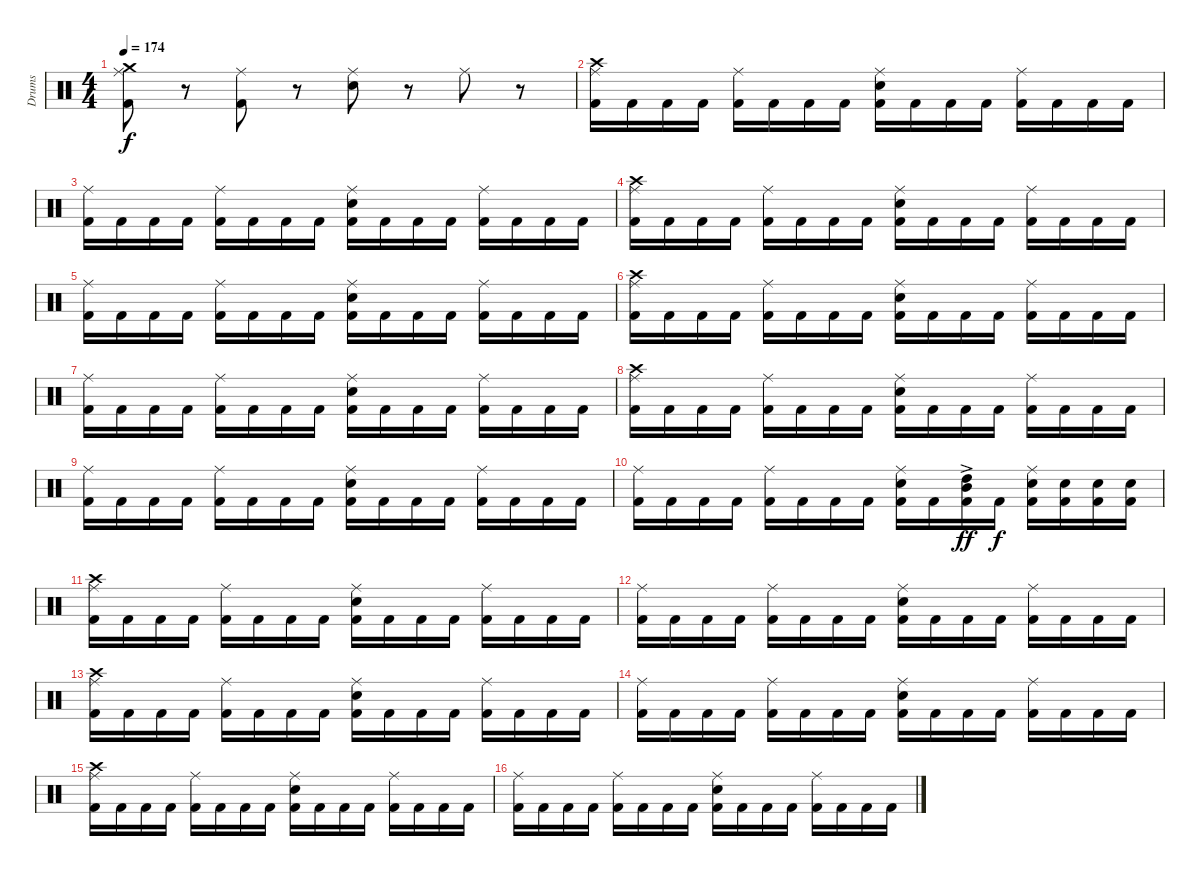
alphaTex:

\track ("Drums" "Drums") {instrument percussion}
\staff {score}
\articulation defaults
\ts (4 4)
\tempo 174
\clef neutral
\ks c
("Ride (middle)" "Crash medium (hit)" "Kick (hit) 2").8{dy f} r.8 ("Ride (middle)" "Kick (hit) 2").8 r.8 ("Ride (middle)" "Snare (hit) 2").8 r.8 "Ride (middle)".8 r.8 |
("Crash high (hit)" "Ride (middle)" "Kick (hit) 2").16 "Kick (hit) 2".16 "Kick (hit) 2".16 "Kick (hit) 2".16 ("Ride (middle)" "Kick (hit) 2").16 "Kick (hit) 2".16 "Kick (hit) 2".16 "Kick (hit) 2".16 ("Ride (middle)" "Snare (hit) 2" "Kick (hit) 2").16 "Kick (hit) 2".16 "Kick (hit) 2".16 "Kick (hit) 2".16 ("Ride (middle)" "Kick (hit) 2").16 "Kick (hit) 2".16 "Kick (hit) 2".16 "Kick (hit) 2".16 |
("Ride (middle)" "Kick (hit) 2").16 "Kick (hit) 2".16 "Kick (hit) 2".16 "Kick (hit) 2".16 ("Ride (middle)" "Kick (hit) 2").16 "Kick (hit) 2".16 "Kick (hit) 2".16 "Kick (hit) 2".16 ("Ride (middle)" "Snare (hit) 2" "Kick (hit) 2").16 "Kick (hit) 2".16 "Kick (hit) 2".16 "Kick (hit) 2".16 ("Ride (middle)" "Kick (hit) 2").16 "Kick (hit) 2".16 "Kick (hit) 2".16 "Kick (hit) 2".16 |
("Crash high (hit)" "Ride (middle)" "Kick (hit) 2").16 "Kick (hit) 2".16 "Kick (hit) 2".16 "Kick (hit) 2".16 ("Ride (middle)" "Kick (hit) 2").16 "Kick (hit) 2".16 "Kick (hit) 2".16 "Kick (hit) 2".16 ("Ride (middle)" "Snare (hit) 2" "Kick (hit) 2").16 "Kick (hit) 2".16 "Kick (hit) 2".16 "Kick (hit) 2".16 ("Ride (middle)" "Kick (hit) 2").16 "Kick (hit) 2".16 "Kick (hit) 2".16 "Kick (hit) 2".16 |
("Ride (middle)" "Kick (hit) 2").16 "Kick (hit) 2".16 "Kick (hit) 2".16 "Kick (hit) 2".16 ("Ride (middle)" "Kick (hit) 2").16 "Kick (hit) 2".16 "Kick (hit) 2".16 "Kick (hit) 2".16 ("Ride (middle)" "Snare (hit) 2" "Kick (hit) 2").16 "Kick (hit) 2".16 "Kick (hit) 2".16 "Kick (hit) 2".16 ("Ride (middle)" "Kick (hit) 2").16 "Kick (hit) 2".16 "Kick (hit) 2".16 "Kick (hit) 2".16 |
("Crash high (hit)" "Ride (middle)" "Kick (hit) 2").16 "Kick (hit) 2".16 "Kick (hit) 2".16 "Kick (hit) 2".16 ("Ride (middle)" "Kick (hit) 2").16 "Kick (hit) 2".16 "Kick (hit) 2".16 "Kick (hit) 2".16 ("Ride (middle)" "Snare (hit) 2" "Kick (hit) 2").16 "Kick (hit) 2".16 "Kick (hit) 2".16 "Kick (hit) 2".16 ("Ride (middle)" "Kick (hit) 2").16 "Kick (hit) 2".16 "Kick (hit) 2".16 "Kick (hit) 2".16 |
("Ride (middle)" "Kick (hit) 2").16 "Kick (hit) 2".16 "Kick (hit) 2".16 "Kick (hit) 2".16 ("Ride (middle)" "Kick (hit) 2").16 "Kick (hit) 2".16 "Kick (hit) 2".16 "Kick (hit) 2".16 ("Ride (middle)" "Snare (hit) 2" "Kick (hit) 2").16 "Kick (hit) 2".16 "Kick (hit) 2".16 "Kick (hit) 2".16 ("Ride (middle)" "Kick (hit) 2").16 "Kick (hit) 2".16 "Kick (hit) 2".16 "Kick (hit) 2".16 |
("Crash high (hit)" "Ride (middle)" "Kick (hit) 2").16 "Kick (hit) 2".16 "Kick (hit) 2".16 "Kick (hit) 2".16 ("Ride (middle)" "Kick (hit) 2").16 "Kick (hit) 2".16 "Kick (hit) 2".16 "Kick (hit) 2".16 ("Ride (middle)" "Snare (hit) 2" "Kick (hit) 2").16 "Kick (hit) 2".16 "Kick (hit) 2".16 "Kick (hit) 2".16 ("Ride (middle)" "Kick (hit) 2").16 "Kick (hit) 2".16 "Kick (hit) 2".16 "Kick (hit) 2".16 |
("Ride (middle)" "Kick (hit) 2").16 "Kick (hit) 2".16 "Kick (hit) 2".16 "Kick (hit) 2".16 ("Ride (middle)" "Kick (hit) 2").16 "Kick (hit) 2".16 "Kick (hit) 2".16 "Kick (hit) 2".16 ("Ride (middle)" "Snare (hit) 2" "Kick (hit) 2").16 "Kick (hit) 2".16 "Kick (hit) 2".16 "Kick (hit) 2".16 ("Ride (middle)" "Kick (hit) 2").16 "Kick (hit) 2".16 "Kick (hit) 2".16 "Kick (hit) 2".16 |
("Ride (middle)" "Kick (hit) 2").16 "Kick (hit) 2".16 "Kick (hit) 2".16 "Kick (hit) 2".16 ("Ride (middle)" "Kick (hit) 2").16 "Kick (hit) 2".16 "Kick (hit) 2".16 "Kick (hit) 2".16 ("Ride (middle)" "Snare (hit) 2" "Kick (hit) 2").16 "Kick (hit) 2".16 ("High Tom (hit)"{ac} "Mid Tom (hit)"{ac} "Kick (hit) 2").16{dy ff} "Kick (hit) 2".16{dy f} ("Ride (middle)" "Snare (hit) 2" "Kick (hit) 2").16 ("Snare (hit) 2" "Kick (hit) 2").16 ("Snare (hit) 2" "Kick (hit) 2").16 ("Snare (hit) 2" "Kick (hit) 2").16 |
("Crash high (hit)" "Ride (middle)" "Kick (hit) 2").16 "Kick (hit) 2".16 "Kick (hit) 2".16 "Kick (hit) 2".16 ("Ride (middle)" "Kick (hit) 2").16 "Kick (hit) 2".16 "Kick (hit) 2".16 "Kick (hit) 2".16 ("Ride (middle)" "Snare (hit) 2" "Kick (hit) 2").16 "Kick (hit) 2".16 "Kick (hit) 2".16 "Kick (hit) 2".16 ("Ride (middle)" "Kick (hit) 2").16 "Kick (hit) 2".16 "Kick (hit) 2".16 "Kick (hit) 2".16 |
("Ride (middle)" "Kick (hit) 2").16 "Kick (hit) 2".16 "Kick (hit) 2".16 "Kick (hit) 2".16 ("Ride (middle)" "Kick (hit) 2").16 "Kick (hit) 2".16 "Kick (hit) 2".16 "Kick (hit) 2".16 ("Ride (middle)" "Snare (hit) 2" "Kick (hit) 2").16 "Kick (hit) 2".16 "Kick (hit) 2".16 "Kick (hit) 2".16 ("Ride (middle)" "Kick (hit) 2").16 "Kick (hit) 2".16 "Kick (hit) 2".16 "Kick (hit) 2".16 |
("Crash high (hit)" "Ride (middle)" "Kick (hit) 2").16 "Kick (hit) 2".16 "Kick (hit) 2".16 "Kick (hit) 2".16 ("Ride (middle)" "Kick (hit) 2").16 "Kick (hit) 2".16 "Kick (hit) 2".16 "Kick (hit) 2".16 ("Ride (middle)" "Snare (hit) 2" "Kick (hit) 2").16 "Kick (hit) 2".16 "Kick (hit) 2".16 "Kick (hit) 2".16 ("Ride (middle)" "Kick (hit) 2").16 "Kick (hit) 2".16 "Kick (hit) 2".16 "Kick (hit) 2".16 |
("Ride (middle)" "Kick (hit) 2").16 "Kick (hit) 2".16 "Kick (hit) 2".16 "Kick (hit) 2".16 ("Ride (middle)" "Kick (hit) 2").16 "Kick (hit) 2".16 "Kick (hit) 2".16 "Kick (hit) 2".16 ("Ride (middle)" "Snare (hit) 2" "Kick (hit) 2").16 "Kick (hit) 2".16 "Kick (hit) 2".16 "Kick (hit) 2".16 ("Ride (middle)" "Kick (hit) 2").16 "Kick (hit) 2".16 "Kick (hit) 2".16 "Kick (hit) 2".16 |
("Crash high (hit)" "Ride (middle)" "Kick (hit) 2").16 "Kick (hit) 2".16 "Kick (hit) 2".16 "Kick (hit) 2".16 ("Ride (middle)" "Kick (hit) 2").16 "Kick (hit) 2".16 "Kick (hit) 2".16 "Kick (hit) 2".16 ("Ride (middle)" "Snare (hit) 2" "Kick (hit) 2").16 "Kick (hit) 2".16 "Kick (hit) 2".16 "Kick (hit) 2".16 ("Ride (middle)" "Kick (hit) 2").16 "Kick (hit) 2".16 "Kick (hit) 2".16 "Kick (hit) 2".16 |
("Ride (middle)" "Kick (hit) 2").16 "Kick (hit) 2".16 "Kick (hit) 2".16 "Kick (hit) 2".16 ("Ride (middle)" "Kick (hit) 2").16 "Kick (hit) 2".16 "Kick (hit) 2".16 "Kick (hit) 2".16 ("Ride (middle)" "Snare (hit) 2" "Kick (hit) 2").16 "Kick (hit) 2".16 "Kick (hit) 2".16 "Kick (hit) 2".16 ("Ride (middle)" "Kick (hit) 2").16 "Kick (hit) 2".16 "Kick (hit) 2".16 "Kick (hit) 2".16
